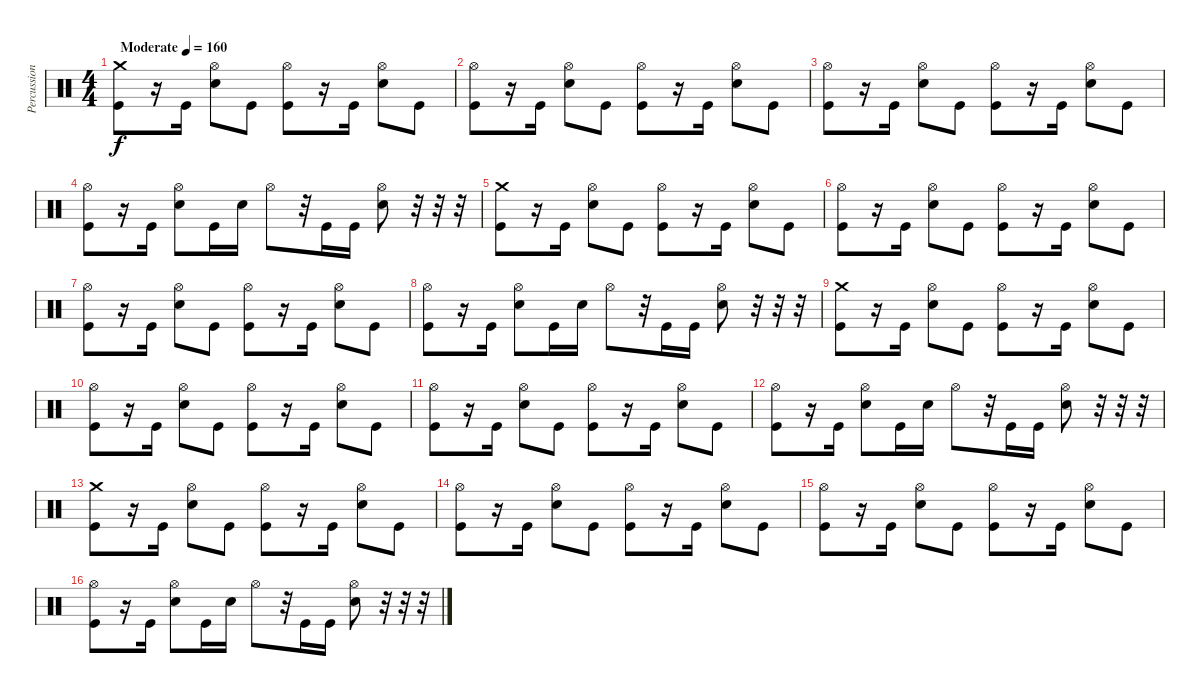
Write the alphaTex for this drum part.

\track ("Percussion" "Percussion") {instrument percussion}
\staff {score}
\articulation defaults
\ts (4 4)
\tempo (160 "Moderate")
\clef neutral
\ks c
("Crash medium (hit)" "Kick (hit)").8{dy f} r.16 "Kick (hit)".16 ("Hi-Hat (open)" "Electric Snare (hit)").8 "Kick (hit)".8 ("Hi-Hat (open)" "Kick (hit)").8 r.16 "Kick (hit)".16 ("Hi-Hat (open)" "Electric Snare (hit)").8 "Kick (hit)".8 |
("Hi-Hat (open)" "Kick (hit)").8 r.16 "Kick (hit)".16 ("Hi-Hat (open)" "Electric Snare (hit)").8 "Kick (hit)".8 ("Hi-Hat (open)" "Kick (hit)").8 r.16 "Kick (hit)".16 ("Hi-Hat (open)" "Electric Snare (hit)").8 "Kick (hit)".8 |
("Hi-Hat (open)" "Kick (hit)").8 r.16 "Kick (hit)".16 ("Hi-Hat (open)" "Electric Snare (hit)").8 "Kick (hit)".8 ("Hi-Hat (open)" "Kick (hit)").8 r.16 "Kick (hit)".16 ("Hi-Hat (open)" "Electric Snare (hit)").8 "Kick (hit)".8 |
("Hi-Hat (open)" "Kick (hit)").8 r.16 "Kick (hit)".16 ("Hi-Hat (open)" "Electric Snare (hit)").8 "Kick (hit)".16 "Electric Snare (hit)".16 "Hi-Hat (open)".8 r.32 "Kick (hit)".16 "Kick (hit)".16 ("Hi-Hat (open)" "Electric Snare (hit)").8 r.32 r.32 r.32 |
("Crash medium (hit)" "Kick (hit)").8 r.16 "Kick (hit)".16 ("Hi-Hat (open)" "Electric Snare (hit)").8 "Kick (hit)".8 ("Hi-Hat (open)" "Kick (hit)").8 r.16 "Kick (hit)".16 ("Hi-Hat (open)" "Electric Snare (hit)").8 "Kick (hit)".8 |
("Hi-Hat (open)" "Kick (hit)").8 r.16 "Kick (hit)".16 ("Hi-Hat (open)" "Electric Snare (hit)").8 "Kick (hit)".8 ("Hi-Hat (open)" "Kick (hit)").8 r.16 "Kick (hit)".16 ("Hi-Hat (open)" "Electric Snare (hit)").8 "Kick (hit)".8 |
("Hi-Hat (open)" "Kick (hit)").8 r.16 "Kick (hit)".16 ("Hi-Hat (open)" "Electric Snare (hit)").8 "Kick (hit)".8 ("Hi-Hat (open)" "Kick (hit)").8 r.16 "Kick (hit)".16 ("Hi-Hat (open)" "Electric Snare (hit)").8 "Kick (hit)".8 |
("Hi-Hat (open)" "Kick (hit)").8 r.16 "Kick (hit)".16 ("Hi-Hat (open)" "Electric Snare (hit)").8 "Kick (hit)".16 "Electric Snare (hit)".16 "Hi-Hat (open)".8 r.32 "Kick (hit)".16 "Kick (hit)".16 ("Hi-Hat (open)" "Electric Snare (hit)").8 r.32 r.32 r.32 |
("Crash medium (hit)" "Kick (hit)").8 r.16 "Kick (hit)".16 ("Hi-Hat (open)" "Electric Snare (hit)").8 "Kick (hit)".8 ("Hi-Hat (open)" "Kick (hit)").8 r.16 "Kick (hit)".16 ("Hi-Hat (open)" "Electric Snare (hit)").8 "Kick (hit)".8 |
("Hi-Hat (open)" "Kick (hit)").8 r.16 "Kick (hit)".16 ("Hi-Hat (open)" "Electric Snare (hit)").8 "Kick (hit)".8 ("Hi-Hat (open)" "Kick (hit)").8 r.16 "Kick (hit)".16 ("Hi-Hat (open)" "Electric Snare (hit)").8 "Kick (hit)".8 |
("Hi-Hat (open)" "Kick (hit)").8 r.16 "Kick (hit)".16 ("Hi-Hat (open)" "Electric Snare (hit)").8 "Kick (hit)".8 ("Hi-Hat (open)" "Kick (hit)").8 r.16 "Kick (hit)".16 ("Hi-Hat (open)" "Electric Snare (hit)").8 "Kick (hit)".8 |
("Hi-Hat (open)" "Kick (hit)").8 r.16 "Kick (hit)".16 ("Hi-Hat (open)" "Electric Snare (hit)").8 "Kick (hit)".16 "Electric Snare (hit)".16 "Hi-Hat (open)".8 r.32 "Kick (hit)".16 "Kick (hit)".16 ("Hi-Hat (open)" "Electric Snare (hit)").8 r.32 r.32 r.32 |
("Crash medium (hit)" "Kick (hit)").8 r.16 "Kick (hit)".16 ("Hi-Hat (open)" "Electric Snare (hit)").8 "Kick (hit)".8 ("Hi-Hat (open)" "Kick (hit)").8 r.16 "Kick (hit)".16 ("Hi-Hat (open)" "Electric Snare (hit)").8 "Kick (hit)".8 |
("Hi-Hat (open)" "Kick (hit)").8 r.16 "Kick (hit)".16 ("Hi-Hat (open)" "Electric Snare (hit)").8 "Kick (hit)".8 ("Hi-Hat (open)" "Kick (hit)").8 r.16 "Kick (hit)".16 ("Hi-Hat (open)" "Electric Snare (hit)").8 "Kick (hit)".8 |
("Hi-Hat (open)" "Kick (hit)").8 r.16 "Kick (hit)".16 ("Hi-Hat (open)" "Electric Snare (hit)").8 "Kick (hit)".8 ("Hi-Hat (open)" "Kick (hit)").8 r.16 "Kick (hit)".16 ("Hi-Hat (open)" "Electric Snare (hit)").8 "Kick (hit)".8 |
("Hi-Hat (open)" "Kick (hit)").8 r.16 "Kick (hit)".16 ("Hi-Hat (open)" "Electric Snare (hit)").8 "Kick (hit)".16 "Electric Snare (hit)".16 "Hi-Hat (open)".8 r.32 "Kick (hit)".16 "Kick (hit)".16 ("Hi-Hat (open)" "Electric Snare (hit)").8 r.32 r.32 r.32
